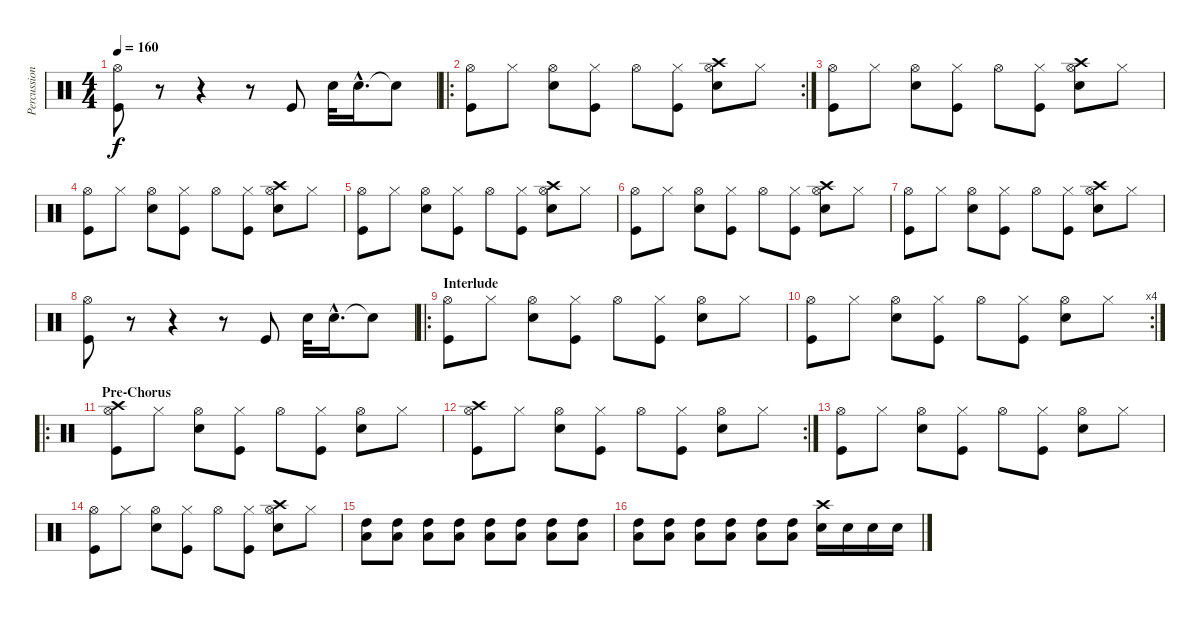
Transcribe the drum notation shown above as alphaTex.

\track ("Percussions" "Percussion") {instrument percussion}
\staff {score}
\articulation defaults
\ts (4 4)
\tempo 160
\clef neutral
\ks c
("Hi-Hat (open)" "Kick (hit)").8{dy f} r.8 r.4 r.8 "Kick (hit)".8 "Snare (hit) 2".32 "Snare (hit) 2"{hac}.16{d} "Snare (hit)"{t}.8 |
\ro
\rc 2
("Hi-Hat (open)" "Kick (hit)").8 "Hi-Hat (closed)".8 ("Hi-Hat (open)" "Snare (hit) 2").8 ("Hi-Hat (closed)" "Kick (hit)").8 "Hi-Hat (open)".8 ("Hi-Hat (closed)" "Kick (hit)").8 ("Hi-Hat (open)" "Snare (hit) 2" "Crash high (hit)").8 "Hi-Hat (closed)".8 |
("Hi-Hat (open)" "Kick (hit)").8 "Hi-Hat (closed)".8 ("Hi-Hat (open)" "Snare (hit) 2").8 ("Hi-Hat (closed)" "Kick (hit)").8 "Hi-Hat (open)".8 ("Hi-Hat (closed)" "Kick (hit)").8 ("Hi-Hat (open)" "Snare (hit) 2" "Crash high (hit)").8 "Hi-Hat (closed)".8 |
("Hi-Hat (open)" "Kick (hit)").8 "Hi-Hat (closed)".8 ("Hi-Hat (open)" "Snare (hit) 2").8 ("Hi-Hat (closed)" "Kick (hit)").8 "Hi-Hat (open)".8 ("Hi-Hat (closed)" "Kick (hit)").8 ("Hi-Hat (open)" "Snare (hit) 2" "Crash high (hit)").8 "Hi-Hat (closed)".8 |
("Hi-Hat (open)" "Kick (hit)").8 "Hi-Hat (closed)".8 ("Hi-Hat (open)" "Snare (hit) 2").8 ("Hi-Hat (closed)" "Kick (hit)").8 "Hi-Hat (open)".8 ("Hi-Hat (closed)" "Kick (hit)").8 ("Hi-Hat (open)" "Snare (hit) 2" "Crash high (hit)").8 "Hi-Hat (closed)".8 |
("Hi-Hat (open)" "Kick (hit)").8 "Hi-Hat (closed)".8 ("Hi-Hat (open)" "Snare (hit) 2").8 ("Hi-Hat (closed)" "Kick (hit)").8 "Hi-Hat (open)".8 ("Hi-Hat (closed)" "Kick (hit)").8 ("Hi-Hat (open)" "Snare (hit) 2" "Crash high (hit)").8 "Hi-Hat (closed)".8 |
("Hi-Hat (open)" "Kick (hit)").8 "Hi-Hat (closed)".8 ("Hi-Hat (open)" "Snare (hit) 2").8 ("Hi-Hat (closed)" "Kick (hit)").8 "Hi-Hat (open)".8 ("Hi-Hat (closed)" "Kick (hit)").8 ("Hi-Hat (open)" "Snare (hit) 2" "Crash high (hit)").8 "Hi-Hat (closed)".8 |
("Hi-Hat (open)" "Kick (hit)").8 r.8 r.4 r.8 "Kick (hit)".8 "Snare (hit) 2".32 "Snare (hit) 2"{hac}.16{d} "Snare (hit)"{t}.8 |
\ro
\section ("" "Interlude")
("Hi-Hat (open)" "Kick (hit)").8 "Hi-Hat (closed)".8 ("Hi-Hat (open)" "Snare (hit) 2").8 ("Hi-Hat (closed)" "Kick (hit)").8 "Hi-Hat (open)".8 ("Hi-Hat (closed)" "Kick (hit)").8 ("Hi-Hat (open)" "Snare (hit) 2").8 "Hi-Hat (closed)".8 |
\rc 4
("Hi-Hat (open)" "Kick (hit)").8 "Hi-Hat (closed)".8 ("Hi-Hat (open)" "Snare (hit) 2").8 ("Hi-Hat (closed)" "Kick (hit)").8 "Hi-Hat (open)".8 ("Hi-Hat (closed)" "Kick (hit)").8 ("Hi-Hat (open)" "Snare (hit) 2").8 "Hi-Hat (closed)".8 |
\ro
\section ("" "Pre-Chorus")
("Hi-Hat (open)" "Kick (hit)" "Crash high (hit)").8 "Hi-Hat (closed)".8 ("Hi-Hat (open)" "Snare (hit) 2").8 ("Hi-Hat (closed)" "Kick (hit)").8 "Hi-Hat (open)".8 ("Hi-Hat (closed)" "Kick (hit)").8 ("Hi-Hat (open)" "Snare (hit) 2").8 "Hi-Hat (closed)".8 |
\rc 2
("Hi-Hat (open)" "Kick (hit)" "Crash high (hit)").8 "Hi-Hat (closed)".8 ("Hi-Hat (open)" "Snare (hit) 2").8 ("Hi-Hat (closed)" "Kick (hit)").8 "Hi-Hat (open)".8 ("Hi-Hat (closed)" "Kick (hit)").8 ("Hi-Hat (open)" "Snare (hit) 2").8 "Hi-Hat (closed)".8 |
("Hi-Hat (open)" "Kick (hit)").8 "Hi-Hat (closed)".8 ("Hi-Hat (open)" "Snare (hit) 2").8 ("Hi-Hat (closed)" "Kick (hit)").8 "Hi-Hat (open)".8 ("Hi-Hat (closed)" "Kick (hit)").8 ("Hi-Hat (open)" "Snare (hit) 2").8 "Hi-Hat (closed)".8 |
("Hi-Hat (open)" "Kick (hit)").8 "Hi-Hat (closed)".8 ("Hi-Hat (open)" "Snare (hit) 2").8 ("Hi-Hat (closed)" "Kick (hit)").8 "Hi-Hat (open)".8 ("Hi-Hat (closed)" "Kick (hit)").8 ("Hi-Hat (open)" "Snare (hit) 2" "Crash high (hit)").8 "Hi-Hat (closed)".8 |
("Low Floor Tom (hit)" "High Tom (hit)").8 ("Low Floor Tom (hit)" "High Tom (hit)").8 ("Low Floor Tom (hit)" "High Tom (hit)").8 ("Low Floor Tom (hit)" "High Tom (hit)").8 ("Low Floor Tom (hit)" "High Tom (hit)").8 ("Low Floor Tom (hit)" "High Tom (hit)").8 ("Low Floor Tom (hit)" "High Tom (hit)").8 ("Low Floor Tom (hit)" "High Tom (hit)").8 |
("Low Floor Tom (hit)" "High Tom (hit)").8 ("Low Floor Tom (hit)" "High Tom (hit)").8 ("Low Floor Tom (hit)" "High Tom (hit)").8 ("Low Floor Tom (hit)" "High Tom (hit)").8 ("Low Floor Tom (hit)" "High Tom (hit)").8 ("Low Floor Tom (hit)" "High Tom (hit)").8 ("Snare (hit) 2" "Crash high (hit)").16 "Snare (hit) 2".16 "Snare (hit) 2".16 "Snare (hit) 2".16
